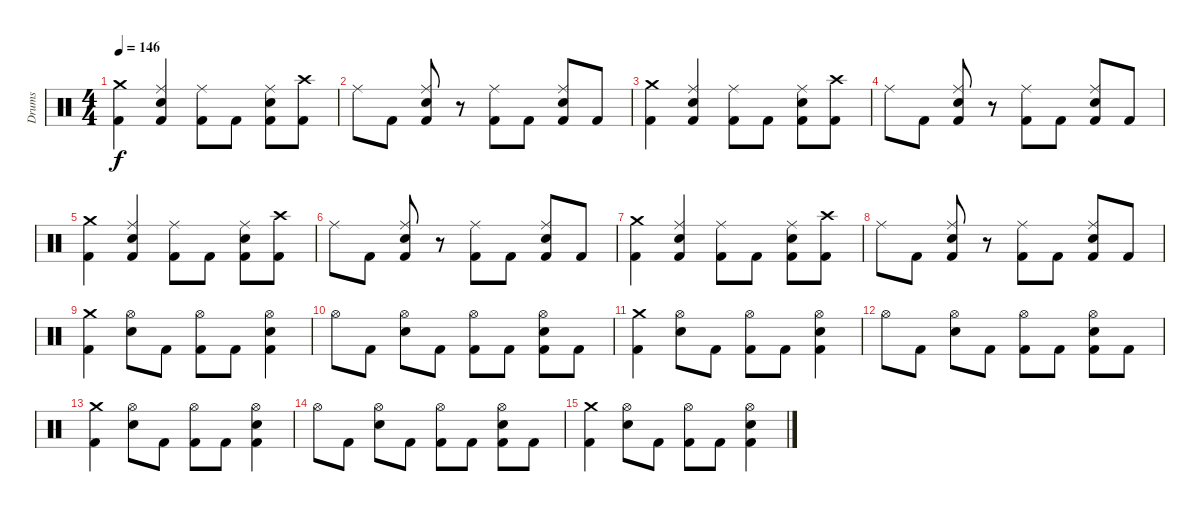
\track ("Drums" "Drums") {instrument percussion}
\staff {score}
\articulation defaults
\ts (4 4)
\tempo 146
\clef neutral
\ks c
("Crash medium (hit)" "Kick (hit) 2").4{dy f} ("Ride (middle)" "Snare (hit) 2" "Kick (hit) 2").4 ("Ride (middle)" "Kick (hit) 2").8 "Kick (hit) 2".8 ("Ride (middle)" "Snare (hit) 2" "Kick (hit) 2").8 ("Crash high (hit)" "Kick (hit) 2").8 |
"Ride (middle)".8 "Kick (hit) 2".8 ("Ride (middle)" "Snare (hit) 2" "Kick (hit) 2").8 r.8 ("Ride (middle)" "Kick (hit) 2").8 "Kick (hit) 2".8 ("Ride (middle)" "Snare (hit) 2" "Kick (hit) 2").8 "Kick (hit) 2".8 |
("Crash medium (hit)" "Kick (hit) 2").4 ("Ride (middle)" "Snare (hit) 2" "Kick (hit) 2").4 ("Ride (middle)" "Kick (hit) 2").8 "Kick (hit) 2".8 ("Ride (middle)" "Snare (hit) 2" "Kick (hit) 2").8 ("Crash high (hit)" "Kick (hit) 2").8 |
"Ride (middle)".8 "Kick (hit) 2".8 ("Ride (middle)" "Snare (hit) 2" "Kick (hit) 2").8 r.8 ("Ride (middle)" "Kick (hit) 2").8 "Kick (hit) 2".8 ("Ride (middle)" "Snare (hit) 2" "Kick (hit) 2").8 "Kick (hit) 2".8 |
("Crash medium (hit)" "Kick (hit) 2").4 ("Ride (middle)" "Snare (hit) 2" "Kick (hit) 2").4 ("Ride (middle)" "Kick (hit) 2").8 "Kick (hit) 2".8 ("Ride (middle)" "Snare (hit) 2" "Kick (hit) 2").8 ("Crash high (hit)" "Kick (hit) 2").8 |
"Ride (middle)".8 "Kick (hit) 2".8 ("Ride (middle)" "Snare (hit) 2" "Kick (hit) 2").8 r.8 ("Ride (middle)" "Kick (hit) 2").8 "Kick (hit) 2".8 ("Ride (middle)" "Snare (hit) 2" "Kick (hit) 2").8 "Kick (hit) 2".8 |
("Crash medium (hit)" "Kick (hit) 2").4 ("Ride (middle)" "Snare (hit) 2" "Kick (hit) 2").4 ("Ride (middle)" "Kick (hit) 2").8 "Kick (hit) 2".8 ("Ride (middle)" "Snare (hit) 2" "Kick (hit) 2").8 ("Crash high (hit)" "Kick (hit) 2").8 |
"Ride (middle)".8 "Kick (hit) 2".8 ("Ride (middle)" "Snare (hit) 2" "Kick (hit) 2").8 r.8 ("Ride (middle)" "Kick (hit) 2").8 "Kick (hit) 2".8 ("Ride (middle)" "Snare (hit) 2" "Kick (hit) 2").8 "Kick (hit) 2".8 |
("Crash medium (hit)" "Kick (hit) 2").4 ("Hi-Hat (open)" "Snare (hit) 2").8 "Kick (hit) 2".8 ("Hi-Hat (open)" "Kick (hit) 2").8 "Kick (hit) 2".8 ("Hi-Hat (open)" "Snare (hit) 2" "Kick (hit) 2").4 |
"Hi-Hat (open)".8 "Kick (hit) 2".8 ("Hi-Hat (open)" "Snare (hit) 2").8 "Kick (hit) 2".8 ("Hi-Hat (open)" "Kick (hit) 2").8 "Kick (hit) 2".8 ("Hi-Hat (open)" "Snare (hit) 2" "Kick (hit) 2").8 "Kick (hit) 2".8 |
("Crash medium (hit)" "Kick (hit) 2").4 ("Hi-Hat (open)" "Snare (hit) 2").8 "Kick (hit) 2".8 ("Hi-Hat (open)" "Kick (hit) 2").8 "Kick (hit) 2".8 ("Hi-Hat (open)" "Snare (hit) 2" "Kick (hit) 2").4 |
"Hi-Hat (open)".8 "Kick (hit) 2".8 ("Hi-Hat (open)" "Snare (hit) 2").8 "Kick (hit) 2".8 ("Hi-Hat (open)" "Kick (hit) 2").8 "Kick (hit) 2".8 ("Hi-Hat (open)" "Snare (hit) 2" "Kick (hit) 2").8 "Kick (hit) 2".8 |
("Crash medium (hit)" "Kick (hit) 2").4 ("Hi-Hat (open)" "Snare (hit) 2").8 "Kick (hit) 2".8 ("Hi-Hat (open)" "Kick (hit) 2").8 "Kick (hit) 2".8 ("Hi-Hat (open)" "Snare (hit) 2" "Kick (hit) 2").4 |
"Hi-Hat (open)".8 "Kick (hit) 2".8 ("Hi-Hat (open)" "Snare (hit) 2").8 "Kick (hit) 2".8 ("Hi-Hat (open)" "Kick (hit) 2").8 "Kick (hit) 2".8 ("Hi-Hat (open)" "Snare (hit) 2" "Kick (hit) 2").8 "Kick (hit) 2".8 |
("Crash medium (hit)" "Kick (hit) 2").4 ("Hi-Hat (open)" "Snare (hit) 2").8 "Kick (hit) 2".8 ("Hi-Hat (open)" "Kick (hit) 2").8 "Kick (hit) 2".8 ("Hi-Hat (open)" "Snare (hit) 2" "Kick (hit) 2").4
